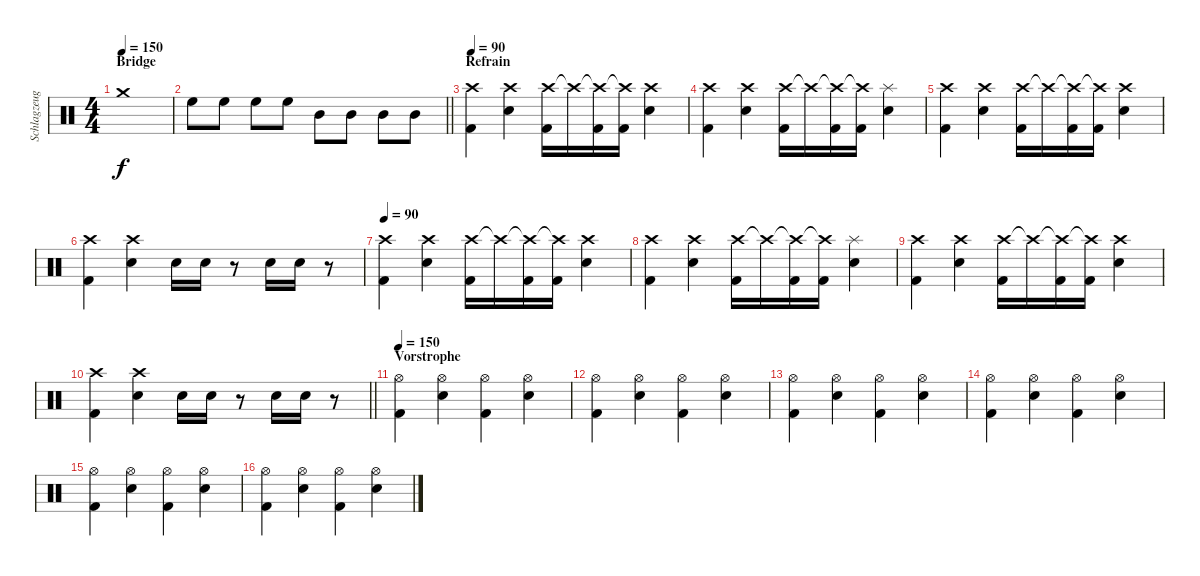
\track ("Schlagzeug" "Schlagzeug") {instrument percussion}
\staff {score}
\articulation defaults
\ts (4 4)
\section ("" "Bridge")
\tempo 150
\clef neutral
\ks c "Crash medium (hit)".1{dy f}
|
\barLineRight lightlight "High Floor Tom (hit)".8 "High Floor Tom (hit)".8 "High Floor Tom (hit)".8 "High Floor Tom (hit)".8 "Mid Tom (hit)".8 "Mid Tom (hit)".8 "Mid Tom (hit)".8 "Mid Tom (hit)".8
|
\section ("" "Refrain")
\tempo 90
("Crash high (hit)" "Kick (hit) 2").4 ("Crash high (hit)" "Snare (hit) 2").4 ("Crash high (hit)" "Kick (hit) 2").16 "Crash high (hit)"{t}.16 ("Crash high (hit)"{t} "Kick (hit) 2").16 ("Crash high (hit)"{t} "Kick (hit) 2").16 ("Crash high (hit)" "Snare (hit) 2").4 |
("Crash high (hit)" "Kick (hit) 2").4 ("Crash high (hit)" "Snare (hit) 2").4 ("Crash high (hit)" "Kick (hit) 2").16 "Crash high (hit)"{t}.16 ("Crash high (hit)"{t} "Kick (hit) 2").16 ("Crash high (hit)"{t} "Kick (hit) 2").16 ("Splash (hit)" "Snare (hit) 2").4 |
("Crash high (hit)" "Kick (hit) 2").4 ("Crash high (hit)" "Snare (hit) 2").4 ("Crash high (hit)" "Kick (hit) 2").16 "Crash high (hit)"{t}.16 ("Crash high (hit)"{t} "Kick (hit) 2").16 ("Crash high (hit)"{t} "Kick (hit) 2").16 ("Crash high (hit)" "Snare (hit) 2").4 |
("Crash high (hit)" "Kick (hit) 2").4 ("Crash high (hit)" "Snare (hit) 2").4 "Snare (hit) 2".16 "Snare (hit) 2".16 r.8 "Snare (hit) 2".16 "Snare (hit) 2".16 r.8 |
\tempo 90
("Crash high (hit)" "Kick (hit) 2").4 ("Crash high (hit)" "Snare (hit) 2").4 ("Crash high (hit)" "Kick (hit) 2").16 "Crash high (hit)"{t}.16 ("Crash high (hit)"{t} "Kick (hit) 2").16 ("Crash high (hit)"{t} "Kick (hit) 2").16 ("Crash high (hit)" "Snare (hit) 2").4 |
("Crash high (hit)" "Kick (hit) 2").4 ("Crash high (hit)" "Snare (hit) 2").4 ("Crash high (hit)" "Kick (hit) 2").16 "Crash high (hit)"{t}.16 ("Crash high (hit)"{t} "Kick (hit) 2").16 ("Crash high (hit)"{t} "Kick (hit) 2").16 ("Splash (hit)" "Snare (hit) 2").4 |
("Crash high (hit)" "Kick (hit) 2").4 ("Crash high (hit)" "Snare (hit) 2").4 ("Crash high (hit)" "Kick (hit) 2").16 "Crash high (hit)"{t}.16 ("Crash high (hit)"{t} "Kick (hit) 2").16 ("Crash high (hit)"{t} "Kick (hit) 2").16 ("Crash high (hit)" "Snare (hit) 2").4 |
\barLineRight lightlight
("Crash high (hit)" "Kick (hit) 2").4 ("Crash high (hit)" "Snare (hit) 2").4 "Snare (hit) 2".16 "Snare (hit) 2".16 r.8 "Snare (hit) 2".16 "Snare (hit) 2".16 r.8 |
\section ("" "Vorstrophe")
\tempo 150
("Hi-Hat (open)" "Kick (hit) 2").4 ("Hi-Hat (open)" "Snare (hit) 2").4 ("Hi-Hat (open)" "Kick (hit) 2").4 ("Hi-Hat (open)" "Snare (hit) 2").4 |
("Hi-Hat (open)" "Kick (hit) 2").4 ("Hi-Hat (open)" "Snare (hit) 2").4 ("Hi-Hat (open)" "Kick (hit) 2").4 ("Hi-Hat (open)" "Snare (hit) 2").4 |
("Hi-Hat (open)" "Kick (hit) 2").4 ("Hi-Hat (open)" "Snare (hit) 2").4 ("Hi-Hat (open)" "Kick (hit) 2").4 ("Hi-Hat (open)" "Snare (hit) 2").4 |
("Hi-Hat (open)" "Kick (hit) 2").4 ("Hi-Hat (open)" "Snare (hit) 2").4 ("Hi-Hat (open)" "Kick (hit) 2").4 ("Hi-Hat (open)" "Snare (hit) 2").4 |
("Hi-Hat (open)" "Kick (hit) 2").4 ("Hi-Hat (open)" "Snare (hit) 2").4 ("Hi-Hat (open)" "Kick (hit) 2").4 ("Hi-Hat (open)" "Snare (hit) 2").4 |
("Hi-Hat (open)" "Kick (hit) 2").4 ("Hi-Hat (open)" "Snare (hit) 2").4 ("Hi-Hat (open)" "Kick (hit) 2").4 ("Hi-Hat (open)" "Snare (hit) 2").4
